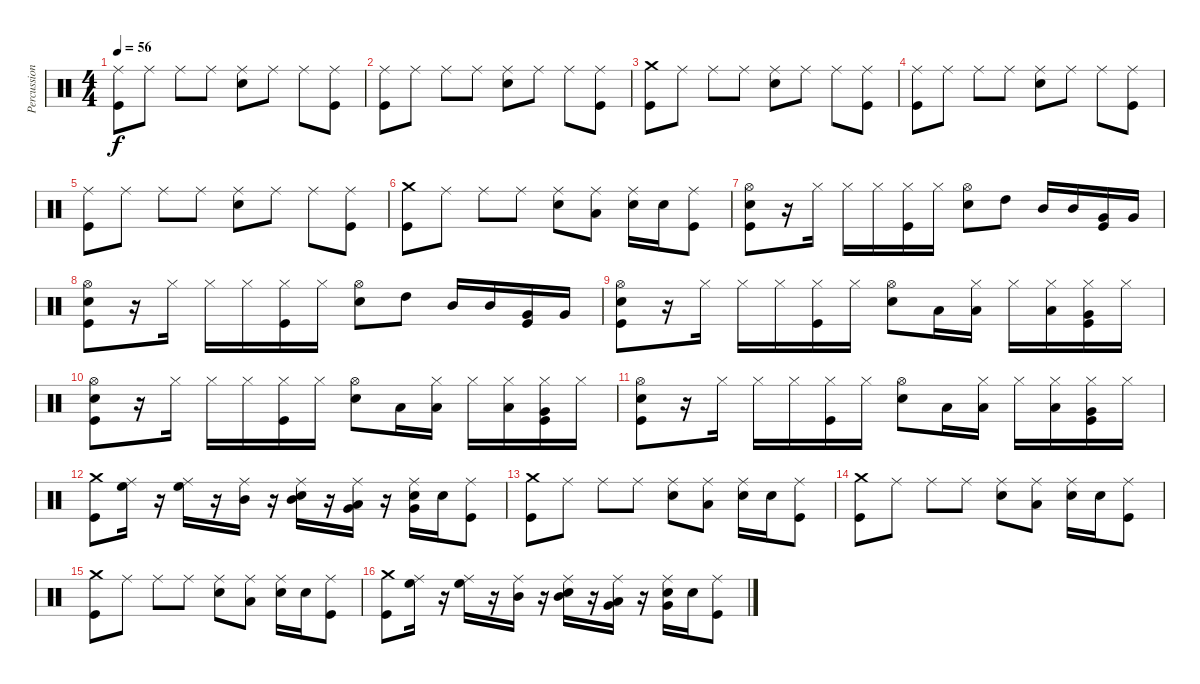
\track ("Percussion" "Percussion") {instrument percussion}
\staff {score}
\articulation defaults
\ts (4 4)
\tempo 56
\clef neutral
\ks c
("Ride (middle)" "Kick (hit)").8{dy f} "Ride (middle)".8 "Ride (middle)".8 "Ride (middle)".8 ("Snare (hit) 2" "Ride (middle)").8 "Ride (middle)".8 "Ride (middle)".8 ("Kick (hit)" "Ride (middle)").8 |
("Ride (middle)" "Kick (hit)").8 "Ride (middle)".8 "Ride (middle)".8 "Ride (middle)".8 ("Snare (hit) 2" "Ride (middle)").8 "Ride (middle)".8 "Ride (middle)".8 ("Kick (hit)" "Ride (middle)").8 |
("Crash medium (hit)" "Kick (hit)").8 "Ride (middle)".8 "Ride (middle)".8 "Ride (middle)".8 ("Snare (hit) 2" "Ride (middle)").8 "Ride (middle)".8 "Ride (middle)".8 ("Kick (hit)" "Ride (middle)").8 |
("Ride (middle)" "Kick (hit)").8 "Ride (middle)".8 "Ride (middle)".8 "Ride (middle)".8 ("Snare (hit) 2" "Ride (middle)").8 "Ride (middle)".8 "Ride (middle)".8 ("Kick (hit)" "Ride (middle)").8 |
("Ride (middle)" "Kick (hit)").8 "Ride (middle)".8 "Ride (middle)".8 "Ride (middle)".8 ("Snare (hit) 2" "Ride (middle)").8 "Ride (middle)".8 "Ride (middle)".8 ("Kick (hit)" "Ride (middle)").8 |
("Crash medium (hit)" "Kick (hit)").8 "Ride (middle)".8 "Ride (middle)".8 "Ride (middle)".8 ("Snare (hit) 2" "Ride (middle)").8 ("Low Floor Tom (hit)" "Ride (middle)").8 ("Snare (hit) 2" "Ride (middle)").16 "Snare (hit) 2".16 ("Kick (hit)" "Ride (middle)").8 |
("Hi-Hat (open)" "Kick (hit)" "Snare (hit) 2").8 r.16 "Hi-Hat (closed)".16 "Hi-Hat (closed)".16 "Hi-Hat (closed)".16 ("Kick (hit)" "Hi-Hat (closed)").16 "Hi-Hat (closed)".16 ("Snare (hit) 2" "Hi-Hat (open)").8 "High Tom (hit)".8 "Mid Tom (hit)".16 "Mid Tom (hit)".16 ("Very Low Tom (hit)" "Kick (hit)").16 "Very Low Tom (hit)".16 |
("Hi-Hat (open)" "Kick (hit)" "Snare (hit) 2").8 r.16 "Hi-Hat (closed)".16 "Hi-Hat (closed)".16 "Hi-Hat (closed)".16 ("Kick (hit)" "Hi-Hat (closed)").16 "Hi-Hat (closed)".16 ("Snare (hit) 2" "Hi-Hat (open)").8 "High Tom (hit)".8 "Mid Tom (hit)".16 "Mid Tom (hit)".16 ("Very Low Tom (hit)" "Kick (hit)").16 "Very Low Tom (hit)".16 |
("Hi-Hat (open)" "Kick (hit)" "Snare (hit) 2").8 r.16 "Hi-Hat (closed)".16 "Hi-Hat (closed)".16 "Hi-Hat (closed)".16 ("Kick (hit)" "Hi-Hat (closed)").16 "Hi-Hat (closed)".16 ("Snare (hit) 2" "Hi-Hat (open)").8 "Low Tom (hit)".16 ("Low Tom (hit)" "Hi-Hat (closed)").16 "Hi-Hat (closed)".16 ("Low Tom (hit)" "Hi-Hat (closed)").16 ("Very Low Tom (hit)" "Kick (hit)" "Hi-Hat (closed)").16 "Hi-Hat (closed)".16 |
("Hi-Hat (open)" "Kick (hit)" "Snare (hit) 2").8 r.16 "Hi-Hat (closed)".16 "Hi-Hat (closed)".16 "Hi-Hat (closed)".16 ("Kick (hit)" "Hi-Hat (closed)").16 "Hi-Hat (closed)".16 ("Snare (hit) 2" "Hi-Hat (open)").8 "Low Tom (hit)".16 ("Low Tom (hit)" "Hi-Hat (closed)").16 "Hi-Hat (closed)".16 ("Low Tom (hit)" "Hi-Hat (closed)").16 ("Very Low Tom (hit)" "Kick (hit)" "Hi-Hat (closed)").16 "Hi-Hat (closed)".16 |
("Hi-Hat (open)" "Kick (hit)" "Snare (hit) 2").8 r.16 "Hi-Hat (closed)".16 "Hi-Hat (closed)".16 "Hi-Hat (closed)".16 ("Kick (hit)" "Hi-Hat (closed)").16 "Hi-Hat (closed)".16 ("Snare (hit) 2" "Hi-Hat (open)").8 "Low Tom (hit)".16 ("Low Tom (hit)" "Hi-Hat (closed)").16 "Hi-Hat (closed)".16 ("Low Tom (hit)" "Hi-Hat (closed)").16 ("Very Low Tom (hit)" "Kick (hit)" "Hi-Hat (closed)").16 "Hi-Hat (closed)".16 |
("Crash medium (hit)" "Kick (hit)").8 ("High Floor Tom (hit)" "Ride (middle)").16 r.16 ("High Floor Tom (hit)" "Ride (middle)").16 r.16 ("Mid Tom (hit)" "Ride (middle)").16 r.16 ("Mid Tom (hit)" "Snare (hit) 2" "Ride (middle)").16 r.16 ("Very Low Tom (hit)" "Low Floor Tom (hit)" "Ride (middle)").16 r.16 ("Very Low Tom (hit)" "Snare (hit) 2" "Ride (middle)").16 "Snare (hit) 2".16 ("Kick (hit)" "Ride (middle)").8 |
("Crash medium (hit)" "Kick (hit)").8 "Ride (middle)".8 "Ride (middle)".8 "Ride (middle)".8 ("Snare (hit) 2" "Ride (middle)").8 ("Low Floor Tom (hit)" "Ride (middle)").8 ("Snare (hit) 2" "Ride (middle)").16 "Snare (hit) 2".16 ("Kick (hit)" "Ride (middle)").8 |
("Crash medium (hit)" "Kick (hit)").8 "Ride (middle)".8 "Ride (middle)".8 "Ride (middle)".8 ("Snare (hit) 2" "Ride (middle)").8 ("Low Floor Tom (hit)" "Ride (middle)").8 ("Snare (hit) 2" "Ride (middle)").16 "Snare (hit) 2".16 ("Kick (hit)" "Ride (middle)").8 |
("Crash medium (hit)" "Kick (hit)").8 "Ride (middle)".8 "Ride (middle)".8 "Ride (middle)".8 ("Snare (hit) 2" "Ride (middle)").8 ("Low Floor Tom (hit)" "Ride (middle)").8 ("Snare (hit) 2" "Ride (middle)").16 "Snare (hit) 2".16 ("Kick (hit)" "Ride (middle)").8 |
("Crash medium (hit)" "Kick (hit)").8 ("High Floor Tom (hit)" "Ride (middle)").16 r.16 ("High Floor Tom (hit)" "Ride (middle)").16 r.16 ("Mid Tom (hit)" "Ride (middle)").16 r.16 ("Mid Tom (hit)" "Snare (hit) 2" "Ride (middle)").16 r.16 ("Very Low Tom (hit)" "Low Floor Tom (hit)" "Ride (middle)").16 r.16 ("Very Low Tom (hit)" "Snare (hit) 2" "Ride (middle)").16 "Snare (hit) 2".16 ("Kick (hit)" "Ride (middle)").8
